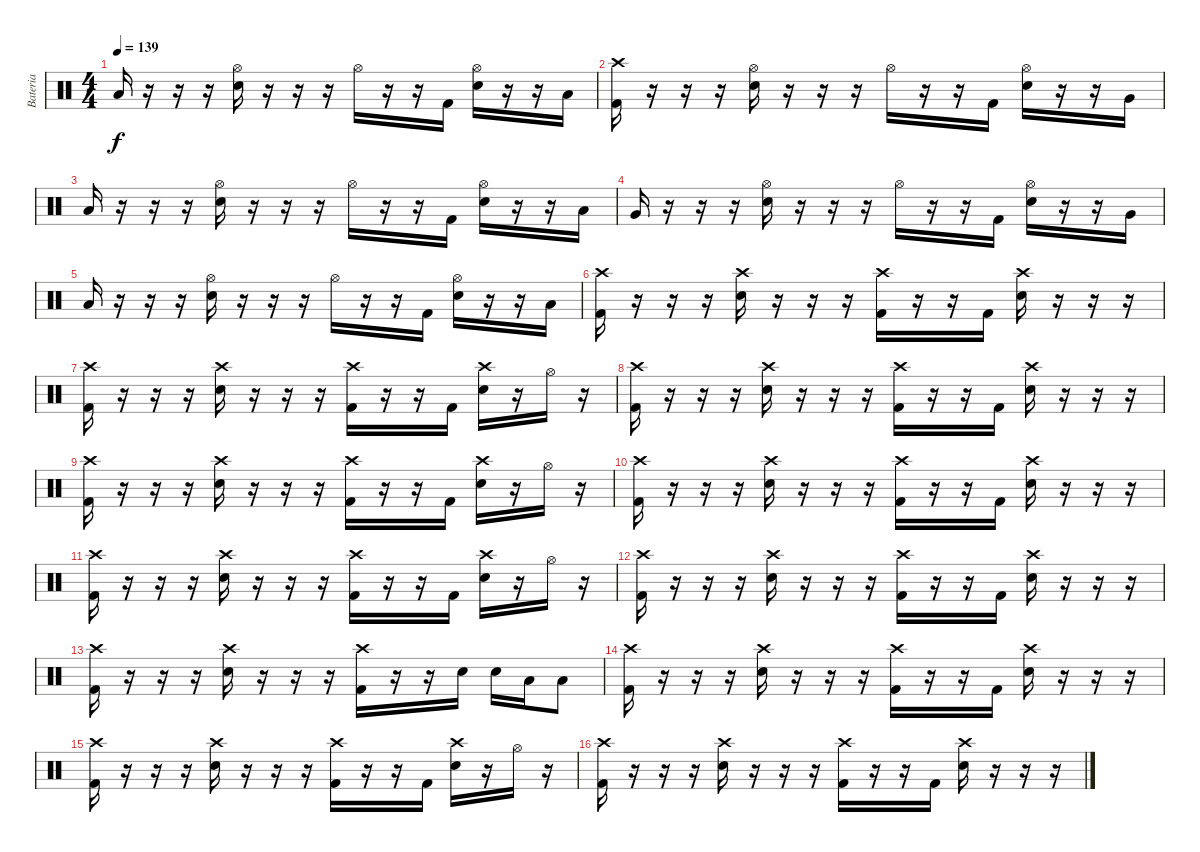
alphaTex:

\track ("Bateria" "Bateria") {instrument percussion}
\staff {score}
\articulation defaults
\ts (4 4)
\tempo 139
\clef neutral
\ks c "Low Tom (hit)".16{dy f}
r.16 r.16 r.16 ("Hi-Hat (open)" "Electric Snare (hit)").16 r.16 r.16 r.16 "Hi-Hat (open)".16 r.16 r.16 "Kick (hit) 2".16 ("Hi-Hat (open)" "Electric Snare (hit)").16 r.16 r.16 "Low Tom (hit)".16 |
("Crash high (hit)" "Kick (hit) 2").16 r.16 r.16 r.16 ("Hi-Hat (open)" "Electric Snare (hit)").16 r.16 r.16 r.16 "Hi-Hat (open)".16 r.16 r.16 "Kick (hit) 2".16 ("Hi-Hat (open)" "Electric Snare (hit)").16 r.16 r.16 "Very Low Tom (hit)".16 |
"Low Tom (hit)".16 r.16 r.16 r.16 ("Hi-Hat (open)" "Electric Snare (hit)").16 r.16 r.16 r.16 "Hi-Hat (open)".16 r.16 r.16 "Kick (hit) 2".16 ("Hi-Hat (open)" "Electric Snare (hit)").16 r.16 r.16 "Low Tom (hit)".16 |
"Very Low Tom (hit)".16 r.16 r.16 r.16 ("Hi-Hat (open)" "Electric Snare (hit)").16 r.16 r.16 r.16 "Hi-Hat (open)".16 r.16 r.16 "Kick (hit) 2".16 ("Hi-Hat (open)" "Electric Snare (hit)").16 r.16 r.16 "Very Low Tom (hit)".16 |
"Low Tom (hit)".16 r.16 r.16 r.16 ("Hi-Hat (open)" "Electric Snare (hit)").16 r.16 r.16 r.16 "Hi-Hat (open)".16 r.16 r.16 "Kick (hit) 2".16 ("Hi-Hat (open)" "Electric Snare (hit)").16 r.16 r.16 "Low Tom (hit)".16 |
("Crash high (hit)" "Kick (hit) 2").16 r.16 r.16 r.16 ("Crash high (hit)" "Electric Snare (hit)").16 r.16 r.16 r.16 ("Crash high (hit)" "Kick (hit) 2").16 r.16 r.16 "Kick (hit) 2".16 ("Crash high (hit)" "Electric Snare (hit)").16 r.16 r.16 r.16 |
("Crash high (hit)" "Kick (hit) 2").16 r.16 r.16 r.16 ("Crash high (hit)" "Electric Snare (hit)").16 r.16 r.16 r.16 ("Crash high (hit)" "Kick (hit) 2").16 r.16 r.16 "Kick (hit) 2".16 ("Crash high (hit)" "Electric Snare (hit)").16 r.16 "Hi-Hat (open)".16 r.16 |
("Crash high (hit)" "Kick (hit) 2").16 r.16 r.16 r.16 ("Crash high (hit)" "Electric Snare (hit)").16 r.16 r.16 r.16 ("Crash high (hit)" "Kick (hit) 2").16 r.16 r.16 "Kick (hit) 2".16 ("Crash high (hit)" "Electric Snare (hit)").16 r.16 r.16 r.16 |
("Crash high (hit)" "Kick (hit) 2").16 r.16 r.16 r.16 ("Crash high (hit)" "Electric Snare (hit)").16 r.16 r.16 r.16 ("Crash high (hit)" "Kick (hit) 2").16 r.16 r.16 "Kick (hit) 2".16 ("Crash high (hit)" "Electric Snare (hit)").16 r.16 "Hi-Hat (open)".16 r.16 |
("Crash high (hit)" "Kick (hit) 2").16 r.16 r.16 r.16 ("Crash high (hit)" "Electric Snare (hit)").16 r.16 r.16 r.16 ("Crash high (hit)" "Kick (hit) 2").16 r.16 r.16 "Kick (hit) 2".16 ("Crash high (hit)" "Electric Snare (hit)").16 r.16 r.16 r.16 |
("Crash high (hit)" "Kick (hit) 2").16 r.16 r.16 r.16 ("Crash high (hit)" "Electric Snare (hit)").16 r.16 r.16 r.16 ("Crash high (hit)" "Kick (hit) 2").16 r.16 r.16 "Kick (hit) 2".16 ("Crash high (hit)" "Electric Snare (hit)").16 r.16 "Hi-Hat (open)".16 r.16 |
("Crash high (hit)" "Kick (hit) 2").16 r.16 r.16 r.16 ("Crash high (hit)" "Electric Snare (hit)").16 r.16 r.16 r.16 ("Crash high (hit)" "Kick (hit) 2").16 r.16 r.16 "Kick (hit) 2".16 ("Crash high (hit)" "Electric Snare (hit)").16 r.16 r.16 r.16 |
("Crash high (hit)" "Kick (hit) 2").16 r.16 r.16 r.16 ("Crash high (hit)" "Electric Snare (hit)").16 r.16 r.16 r.16 ("Crash high (hit)" "Kick (hit) 2").16 r.16 r.16 "Electric Snare (hit)".16 "Electric Snare (hit)".16 "Low Tom (hit)".16 "Low Tom (hit)".8 |
("Crash high (hit)" "Kick (hit) 2").16 r.16 r.16 r.16 ("Crash high (hit)" "Electric Snare (hit)").16 r.16 r.16 r.16 ("Crash high (hit)" "Kick (hit) 2").16 r.16 r.16 "Kick (hit) 2".16 ("Crash high (hit)" "Electric Snare (hit)").16 r.16 r.16 r.16 |
("Crash high (hit)" "Kick (hit) 2").16 r.16 r.16 r.16 ("Crash high (hit)" "Electric Snare (hit)").16 r.16 r.16 r.16 ("Crash high (hit)" "Kick (hit) 2").16 r.16 r.16 "Kick (hit) 2".16 ("Crash high (hit)" "Electric Snare (hit)").16 r.16 "Hi-Hat (open)".16 r.16 |
("Crash high (hit)" "Kick (hit) 2").16 r.16 r.16 r.16 ("Crash high (hit)" "Electric Snare (hit)").16 r.16 r.16 r.16 ("Crash high (hit)" "Kick (hit) 2").16 r.16 r.16 "Kick (hit) 2".16 ("Crash high (hit)" "Electric Snare (hit)").16 r.16 r.16 r.16
